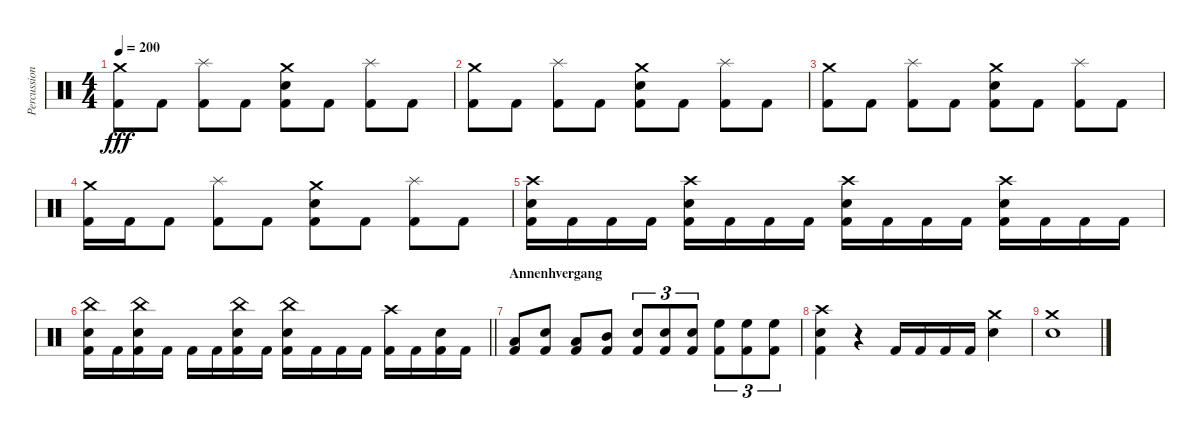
\track ("Percussion" "Percussion") {instrument percussion}
\staff {score}
\articulation defaults
\ts (4 4)
\tempo 200
\clef neutral
\ks c
("Crash medium (hit)" "Kick (hit) 2").8{dy fff} "Kick (hit) 2".8 ("Splash (hit)" "Kick (hit) 2").8 "Kick (hit) 2".8 ("Crash medium (hit)" "Snare (hit) 2" "Kick (hit) 2").8 "Kick (hit) 2".8 ("Splash (hit)" "Kick (hit) 2").8 "Kick (hit) 2".8 |
("Crash medium (hit)" "Kick (hit) 2").8 "Kick (hit) 2".8 ("Splash (hit)" "Kick (hit) 2").8 "Kick (hit) 2".8 ("Crash medium (hit)" "Snare (hit) 2" "Kick (hit) 2").8 "Kick (hit) 2".8 ("Splash (hit)" "Kick (hit) 2").8 "Kick (hit) 2".8 |
("Crash medium (hit)" "Kick (hit) 2").8 "Kick (hit) 2".8 ("Splash (hit)" "Kick (hit) 2").8 "Kick (hit) 2".8 ("Crash medium (hit)" "Snare (hit) 2" "Kick (hit) 2").8 "Kick (hit) 2".8 ("Splash (hit)" "Kick (hit) 2").8 "Kick (hit) 2".8 |
("Crash medium (hit)" "Kick (hit) 2").16 "Kick (hit) 2".16 "Kick (hit) 2".8 ("Splash (hit)" "Kick (hit) 2").8 "Kick (hit) 2".8 ("Crash medium (hit)" "Snare (hit) 2" "Kick (hit) 2").8 "Kick (hit) 2".8 ("Splash (hit)" "Kick (hit) 2").8 "Kick (hit) 2".8 |
("Crash high (hit)" "Snare (hit) 2" "Kick (hit) 2").16 "Kick (hit) 2".16 "Kick (hit) 2".16 "Kick (hit) 2".16 ("Crash high (hit)" "Snare (hit) 2" "Kick (hit) 2").16 "Kick (hit) 2".16 "Kick (hit) 2".16 "Kick (hit) 2".16 ("Crash high (hit)" "Snare (hit) 2" "Kick (hit) 2").16 "Kick (hit) 2".16 "Kick (hit) 2".16 "Kick (hit) 2".16 ("Crash high (hit)" "Snare (hit) 2" "Kick (hit) 2").16 "Kick (hit) 2".16 "Kick (hit) 2".16 "Kick (hit) 2".16 |
\barLineRight lightlight
("China (hit)" "Snare (hit) 2" "Kick (hit) 2").16 "Kick (hit) 2".16 ("China (hit)" "Snare (hit) 2" "Kick (hit) 2").16 "Kick (hit) 2".16 "Kick (hit) 2".16 "Kick (hit) 2".16 ("China (hit)" "Snare (hit) 2" "Kick (hit) 2").16 "Kick (hit) 2".16 ("China (hit)" "Snare (hit) 2" "Kick (hit) 2").16 "Kick (hit) 2".16 "Kick (hit) 2".16 "Kick (hit) 2".16 ("Crash high (hit)" "Kick (hit) 2").16 "Kick (hit) 2".16 ("Snare (hit) 2" "Kick (hit) 2").16 "Kick (hit) 2".16 |
\section ("" "Annenhvergang")
("Low Floor Tom (hit)" "Kick (hit) 2").8 ("Snare (hit) 2" "Kick (hit) 2").8 ("Low Floor Tom (hit)" "Kick (hit) 2").8 ("Mid Tom (hit)" "Kick (hit) 2").8 ("Snare (hit) 2" "Kick (hit) 2").8{tu (3 2)} ("Snare (hit) 2" "Kick (hit) 2").8{tu (3 2)} ("Snare (hit) 2" "Kick (hit) 2").8{tu (3 2)} ("High Floor Tom (hit)" "Kick (hit) 2").8{tu (3 2)} ("High Floor Tom (hit)" "Kick (hit) 2").8{tu (3 2)} ("High Floor Tom (hit)" "Kick (hit) 2").8{tu (3 2)} |
("Crash high (hit)" "Snare (hit) 2" "Kick (hit) 2").4 r.4 "Kick (hit) 2".16 "Kick (hit) 2".16 "Kick (hit) 2".16 "Kick (hit) 2".16 ("Crash medium (hit)" "Snare (hit) 2").4 |
("Crash medium (hit)" "Snare (hit) 2").1
